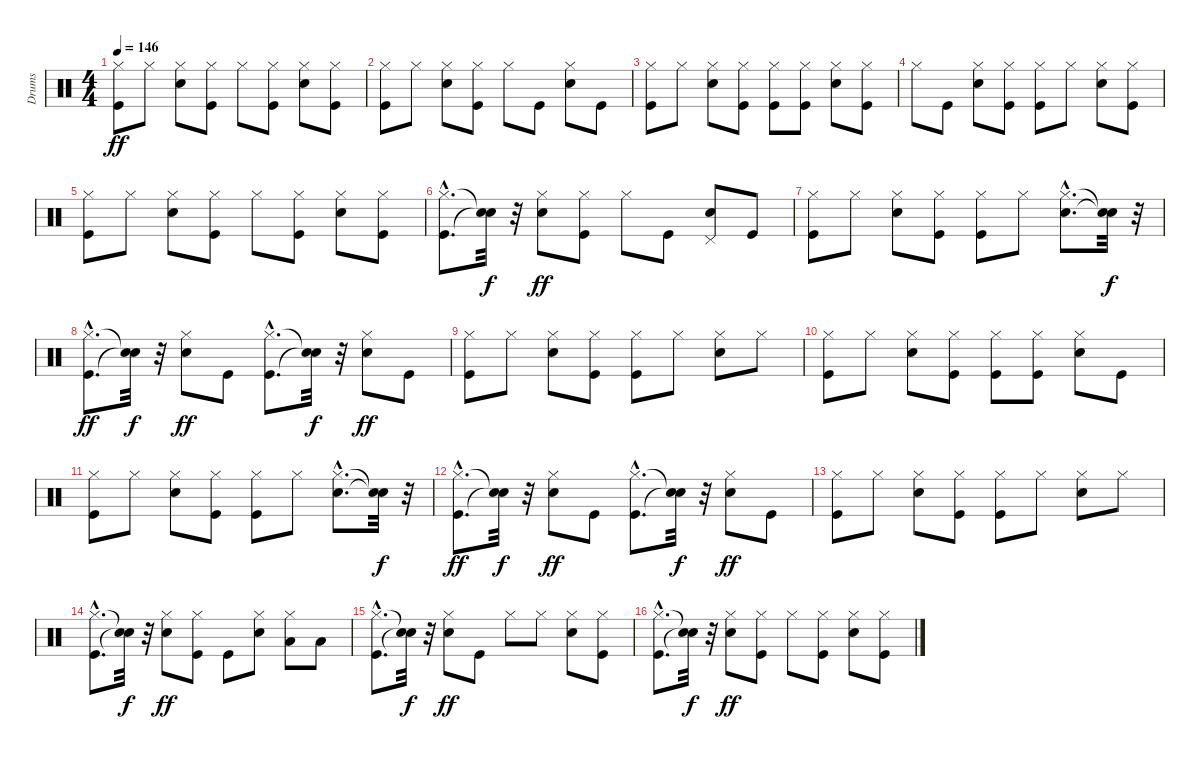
\track ("Drums" "Drums") {instrument percussion}
\staff {score}
\articulation defaults
\ts (4 4)
\tempo 146
\clef neutral
\ks c
("Kick (hit)" "Hi-Hat (closed)").8{dy ff} "Hi-Hat (closed)".8 ("Snare (hit) 2" "Hi-Hat (closed)").8 ("Kick (hit)" "Hi-Hat (closed)").8 "Hi-Hat (closed)".8 ("Kick (hit)" "Hi-Hat (closed)").8 ("Snare (hit) 2" "Hi-Hat (closed)").8 ("Kick (hit)" "Hi-Hat (closed)").8 |
("Kick (hit)" "Hi-Hat (closed)").8 "Hi-Hat (closed)".8 ("Snare (hit) 2" "Hi-Hat (closed)").8 ("Kick (hit)" "Hi-Hat (closed)").8 "Hi-Hat (closed)".8 "Kick (hit)".8 ("Snare (hit) 2" "Hi-Hat (closed)").8 "Kick (hit)".8 |
("Kick (hit)" "Hi-Hat (closed)").8 "Hi-Hat (closed)".8 ("Snare (hit) 2" "Hi-Hat (closed)").8 ("Kick (hit)" "Hi-Hat (closed)").8 ("Kick (hit)" "Hi-Hat (closed)").8 ("Kick (hit)" "Hi-Hat (closed)").8 ("Snare (hit) 2" "Hi-Hat (closed)").8 ("Kick (hit)" "Hi-Hat (closed)").8 |
"Hi-Hat (closed)".8 "Kick (hit)".8 ("Snare (hit) 2" "Hi-Hat (closed)").8 ("Kick (hit)" "Hi-Hat (closed)").8 ("Kick (hit)" "Hi-Hat (closed)").8 "Hi-Hat (closed)".8 ("Snare (hit) 2" "Hi-Hat (closed)").8 ("Kick (hit)" "Hi-Hat (closed)").8 |
("Kick (hit)" "Hi-Hat (closed)").8 "Hi-Hat (closed)".8 ("Snare (hit) 2" "Hi-Hat (closed)").8 ("Kick (hit)" "Hi-Hat (closed)").8 "Hi-Hat (closed)".8 ("Kick (hit)" "Hi-Hat (closed)").8 ("Snare (hit) 2" "Hi-Hat (closed)").8 ("Kick (hit)" "Hi-Hat (closed)").8 |
("Kick (hit)"{hac} "Hi-Hat (closed)"{hac}).8{d} ("Snare (hit)"{t} "Snare (hit)"{t}).32{dy f} r.32 ("Snare (hit) 2" "Hi-Hat (closed)").8{dy ff} ("Kick (hit)" "Hi-Hat (closed)").8 "Hi-Hat (closed)".8 "Kick (hit)".8 ("Snare (hit) 2" "Pedal Hi-Hat (hit)").8 "Kick (hit)".8 |
("Kick (hit)" "Hi-Hat (closed)").8 "Hi-Hat (closed)".8 ("Snare (hit) 2" "Hi-Hat (closed)").8 ("Kick (hit)" "Hi-Hat (closed)").8 ("Kick (hit)" "Hi-Hat (closed)").8 "Hi-Hat (closed)".8 ("Snare (hit) 2"{hac} "Hi-Hat (closed)"{hac}).8{d} ("Snare (hit)"{t} "Snare (hit)"{t}).32{dy f} r.32 |
("Kick (hit)"{hac} "Hi-Hat (closed)"{hac}).8{d dy ff} ("Snare (hit)"{t} "Snare (hit)"{t}).32{dy f} r.32 ("Snare (hit) 2" "Hi-Hat (closed)").8{dy ff} "Kick (hit)".8 ("Kick (hit)"{hac} "Hi-Hat (closed)"{hac}).8{d} ("Snare (hit)"{t} "Snare (hit)"{t}).32{dy f} r.32 ("Snare (hit) 2" "Hi-Hat (closed)").8{dy ff} "Kick (hit)".8 |
("Kick (hit)" "Hi-Hat (closed)").8 "Hi-Hat (closed)".8 ("Snare (hit) 2" "Hi-Hat (closed)").8 ("Kick (hit)" "Hi-Hat (closed)").8 ("Kick (hit)" "Hi-Hat (closed)").8 "Hi-Hat (closed)".8 ("Snare (hit) 2" "Hi-Hat (closed)").8 "Hi-Hat (closed)".8 |
("Kick (hit)" "Hi-Hat (closed)").8 "Hi-Hat (closed)".8 ("Snare (hit) 2" "Hi-Hat (closed)").8 ("Kick (hit)" "Hi-Hat (closed)").8 ("Kick (hit)" "Hi-Hat (closed)").8 ("Kick (hit)" "Hi-Hat (closed)").8 ("Snare (hit) 2" "Hi-Hat (closed)").8 "Kick (hit)".8 |
("Kick (hit)" "Hi-Hat (closed)").8 "Hi-Hat (closed)".8 ("Snare (hit) 2" "Hi-Hat (closed)").8 ("Kick (hit)" "Hi-Hat (closed)").8 ("Kick (hit)" "Hi-Hat (closed)").8 "Hi-Hat (closed)".8 ("Snare (hit) 2"{hac} "Hi-Hat (closed)"{hac}).8{d} ("Snare (hit)"{t} "Snare (hit)"{t}).32{dy f} r.32 |
("Kick (hit)"{hac} "Hi-Hat (closed)"{hac}).8{d dy ff} ("Snare (hit)"{t} "Snare (hit)"{t}).32{dy f} r.32 ("Snare (hit) 2" "Hi-Hat (closed)").8{dy ff} "Kick (hit)".8 ("Kick (hit)"{hac} "Hi-Hat (closed)"{hac}).8{d} ("Snare (hit)"{t} "Snare (hit)"{t}).32{dy f} r.32 ("Snare (hit) 2" "Hi-Hat (closed)").8{dy ff} "Kick (hit)".8 |
("Kick (hit)" "Hi-Hat (closed)").8 "Hi-Hat (closed)".8 ("Snare (hit) 2" "Hi-Hat (closed)").8 ("Kick (hit)" "Hi-Hat (closed)").8 ("Kick (hit)" "Hi-Hat (closed)").8 "Hi-Hat (closed)".8 ("Snare (hit) 2" "Hi-Hat (closed)").8 "Hi-Hat (closed)".8 |
("Kick (hit)"{hac} "Hi-Hat (closed)"{hac}).8{d} ("Snare (hit)"{t} "Snare (hit)"{t}).32{dy f} r.32 ("Snare (hit) 2" "Hi-Hat (closed)").8{dy ff} ("Kick (hit)" "Hi-Hat (closed)").8 "Kick (hit)".8 ("Snare (hit) 2" "Hi-Hat (closed)").8 ("Hi-Hat (closed)" "Low Tom (hit)").8 "Low Floor Tom (hit)".8 |
("Kick (hit)"{hac} "Hi-Hat (closed)"{hac}).8{d} ("Snare (hit)"{t} "Snare (hit)"{t}).32{dy f} r.32 ("Snare (hit) 2" "Hi-Hat (closed)").8{dy ff} "Kick (hit)".8 "Hi-Hat (closed)".8 "Hi-Hat (closed)".8 ("Snare (hit) 2" "Hi-Hat (closed)").8 ("Kick (hit)" "Hi-Hat (closed)").8 |
("Kick (hit)"{hac} "Hi-Hat (closed)"{hac}).8{d} ("Snare (hit)"{t} "Snare (hit)"{t}).32{dy f} r.32 ("Snare (hit) 2" "Hi-Hat (closed)").8{dy ff} ("Kick (hit)" "Hi-Hat (closed)").8 "Hi-Hat (closed)".8 ("Kick (hit)" "Hi-Hat (closed)").8 ("Snare (hit) 2" "Hi-Hat (closed)").8 ("Kick (hit)" "Hi-Hat (closed)").8
